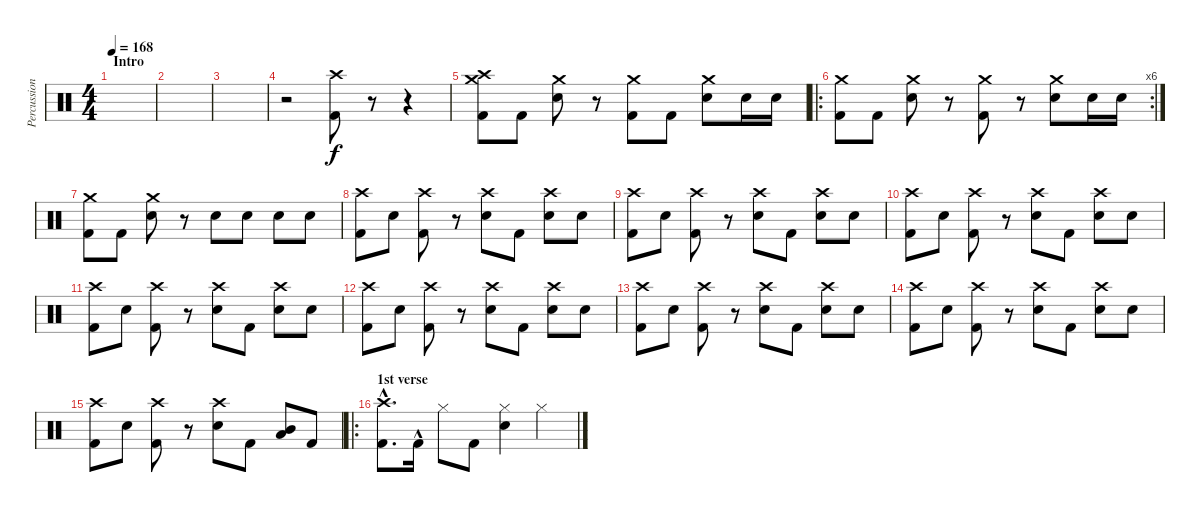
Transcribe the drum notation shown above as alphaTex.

\track ("Percussion" "Percussion") {instrument percussion}
\staff {score}
\articulation defaults
\ts (4 4)
\section ("" "Intro")
\tempo 168
\clef neutral
\ks c
|
|
|
r.2 ("Crash high (hit)" "Kick (hit) 2").8 r.8 r.4 |
("Crash medium (hit)" "Crash high (hit)" "Kick (hit) 2").8 "Kick (hit) 2".8 ("Crash medium (hit)" "Electric Snare (hit)").8 r.8 ("Crash medium (hit)" "Kick (hit) 2").8 "Kick (hit) 2".8 ("Crash medium (hit)" "Electric Snare (hit)").8 "Electric Snare (hit)".16 "Electric Snare (hit)".16 |
\ro
\rc 6
("Crash medium (hit)" "Kick (hit) 2").8 "Kick (hit) 2".8 ("Crash medium (hit)" "Electric Snare (hit)").8 r.8 ("Crash medium (hit)" "Kick (hit) 2").8 r.8 ("Crash medium (hit)" "Electric Snare (hit)").8 "Electric Snare (hit)".16 "Electric Snare (hit)".16 |
("Crash medium (hit)" "Kick (hit) 2").8 "Kick (hit) 2".8 ("Crash medium (hit)" "Electric Snare (hit)").8 r.8 "Electric Snare (hit)".8 "Electric Snare (hit)".8 "Electric Snare (hit)".8 "Electric Snare (hit)".8 |
("Crash high (hit)" "Kick (hit) 2").8 "Electric Snare (hit)".8 ("Crash high (hit)" "Kick (hit) 2").8 r.8 ("Crash high (hit)" "Electric Snare (hit)").8 "Kick (hit) 2".8 ("Crash high (hit)" "Electric Snare (hit)").8 "Electric Snare (hit)".8 |
("Crash high (hit)" "Kick (hit) 2").8 "Electric Snare (hit)".8 ("Crash high (hit)" "Kick (hit) 2").8 r.8 ("Crash high (hit)" "Electric Snare (hit)").8 "Kick (hit) 2".8 ("Crash high (hit)" "Electric Snare (hit)").8 "Electric Snare (hit)".8 |
("Crash high (hit)" "Kick (hit) 2").8 "Electric Snare (hit)".8 ("Crash high (hit)" "Kick (hit) 2").8 r.8 ("Crash high (hit)" "Electric Snare (hit)").8 "Kick (hit) 2".8 ("Crash high (hit)" "Electric Snare (hit)").8 "Electric Snare (hit)".8 |
("Crash high (hit)" "Kick (hit) 2").8 "Electric Snare (hit)".8 ("Crash high (hit)" "Kick (hit) 2").8 r.8 ("Crash high (hit)" "Electric Snare (hit)").8 "Kick (hit) 2".8 ("Crash high (hit)" "Electric Snare (hit)").8 "Electric Snare (hit)".8 |
("Crash high (hit)" "Kick (hit) 2").8 "Electric Snare (hit)".8 ("Crash high (hit)" "Kick (hit) 2").8 r.8 ("Crash high (hit)" "Electric Snare (hit)").8 "Kick (hit) 2".8 ("Crash high (hit)" "Electric Snare (hit)").8 "Electric Snare (hit)".8 |
("Crash high (hit)" "Kick (hit) 2").8 "Electric Snare (hit)".8 ("Crash high (hit)" "Kick (hit) 2").8 r.8 ("Crash high (hit)" "Electric Snare (hit)").8 "Kick (hit) 2".8 ("Crash high (hit)" "Electric Snare (hit)").8 "Electric Snare (hit)".8 |
("Crash high (hit)" "Kick (hit) 2").8 "Electric Snare (hit)".8 ("Crash high (hit)" "Kick (hit) 2").8 r.8 ("Crash high (hit)" "Electric Snare (hit)").8 "Kick (hit) 2".8 ("Crash high (hit)" "Electric Snare (hit)").8 "Electric Snare (hit)".8 |
("Crash high (hit)" "Kick (hit) 2").8 "Electric Snare (hit)".8 ("Crash high (hit)" "Kick (hit) 2").8 r.8 ("Crash high (hit)" "Electric Snare (hit)").8 "Kick (hit) 2".8 ("Low Tom (hit)" "Mid Tom (hit)").8 "Kick (hit) 2".8 |
\ro
\section ("" "1st verse")
("Crash high (hit)" "Kick (hit) 2"{hac}).8{d} "Kick (hit) 2"{hac}.16 "Hi-Hat (closed)".8 "Kick (hit) 2".8 ("Hi-Hat (closed)" "Electric Snare (hit)").4 "Hi-Hat (closed)".4
